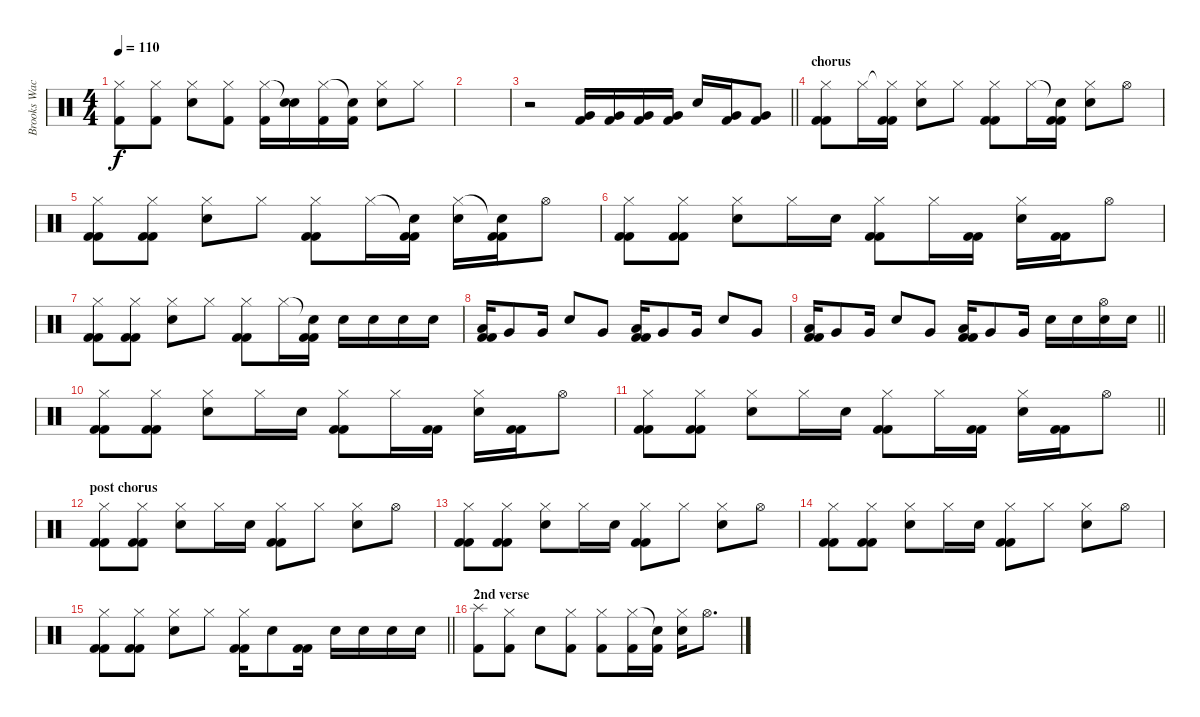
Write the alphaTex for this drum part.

\track ("Brooks Wackerman" "Brooks Wac") {instrument percussion}
\staff {score}
\articulation defaults
\ts (4 4)
\tempo 110
\clef neutral
\ks c
("Hi-Hat (closed)" "Kick (hit) 2").8{dy f} ("Hi-Hat (closed)" "Kick (hit) 2").8 ("Hi-Hat (closed)" "Snare (hit) 2").8 ("Hi-Hat (closed)" "Kick (hit) 2").8 ("Hi-Hat (closed)" "Kick (hit) 2").16 ("Snare (hit)"{t} "Snare (hit) 2").16 ("Hi-Hat (closed)" "Kick (hit) 2").16 ("Snare (hit)"{t} "Kick (hit) 2").16 ("Hi-Hat (closed)" "Snare (hit) 2").8 "Hi-Hat (closed)".8 |
|
\barLineRight lightlight
r.2 ("Very Low Tom (hit)" "Kick (hit) 2").16 ("Very Low Tom (hit)" "Kick (hit) 2").16 ("Very Low Tom (hit)" "Kick (hit) 2").16 ("Very Low Tom (hit)" "Kick (hit) 2").16 "Snare (hit) 2".16 ("Very Low Tom (hit)" "Kick (hit) 2").16 ("Very Low Tom (hit)" "Kick (hit) 2").8 |
\section ("" "chorus")
("Hi-Hat (closed)" "Kick (hit) 2" "Kick (hit) 2").8 "Hi-Hat (closed)".16 ("Hi-Hat (closed)"{t} "Kick (hit) 2" "Kick (hit) 2").16 ("Hi-Hat (closed)" "Snare (hit) 2").8 "Hi-Hat (closed)".8 ("Hi-Hat (closed)" "Kick (hit) 2" "Kick (hit) 2").8 "Hi-Hat (closed)".16 ("Snare (hit)"{t} "Kick (hit) 2" "Kick (hit) 2").16 ("Hi-Hat (closed)" "Snare (hit) 2").8 "Hi-Hat (open)".8 |
("Hi-Hat (closed)" "Kick (hit) 2" "Kick (hit) 2").8 ("Hi-Hat (closed)" "Kick (hit) 2" "Kick (hit) 2").8 ("Hi-Hat (closed)" "Snare (hit) 2").8 "Hi-Hat (closed)".8 ("Hi-Hat (closed)" "Kick (hit) 2" "Kick (hit) 2").8 "Hi-Hat (closed)".16 ("Snare (hit)"{t} "Kick (hit) 2" "Kick (hit) 2").16 ("Hi-Hat (closed)" "Snare (hit) 2").16 ("Snare (hit)"{t} "Kick (hit) 2" "Kick (hit) 2").16 "Hi-Hat (open)".8 |
("Hi-Hat (closed)" "Kick (hit) 2" "Kick (hit) 2").8 ("Hi-Hat (closed)" "Kick (hit) 2" "Kick (hit) 2").8 ("Hi-Hat (closed)" "Snare (hit) 2").8 "Hi-Hat (closed)".16 "Snare (hit) 2".16 ("Hi-Hat (closed)" "Kick (hit) 2" "Kick (hit) 2").8 "Hi-Hat (closed)".16 ("Kick (hit) 2" "Kick (hit) 2").16 ("Hi-Hat (closed)" "Snare (hit) 2").16 ("Kick (hit) 2" "Kick (hit) 2").16 "Hi-Hat (open)".8 |
("Hi-Hat (closed)" "Kick (hit) 2" "Kick (hit) 2").8 ("Hi-Hat (closed)" "Kick (hit) 2" "Kick (hit) 2").8 ("Hi-Hat (closed)" "Snare (hit) 2").8 "Hi-Hat (closed)".8 ("Hi-Hat (closed)" "Kick (hit) 2" "Kick (hit) 2").8 "Hi-Hat (closed)".16 ("Snare (hit)"{t} "Kick (hit) 2" "Kick (hit) 2").16 "Snare (hit) 2".16 "Snare (hit) 2".16 "Snare (hit) 2".16 "Snare (hit) 2".16 |
("Low Tom (hit)" "Kick (hit) 2" "Kick (hit) 2").16 "Very Low Tom (hit)".8 "Very Low Tom (hit)".16 "Snare (hit) 2".8 "Very Low Tom (hit)".8 ("Low Tom (hit)" "Kick (hit) 2" "Kick (hit) 2").16 "Very Low Tom (hit)".8 "Very Low Tom (hit)".16 "Snare (hit) 2".8 "Very Low Tom (hit)".8 |
\barLineRight lightlight
("Low Tom (hit)" "Kick (hit) 2" "Kick (hit) 2").16 "Very Low Tom (hit)".8 "Very Low Tom (hit)".16 "Snare (hit) 2".8 "Very Low Tom (hit)".8 ("Low Tom (hit)" "Kick (hit) 2" "Kick (hit) 2").16 "Very Low Tom (hit)".8 "Very Low Tom (hit)".16 "Snare (hit) 2".16 "Snare (hit) 2".16 ("Hi-Hat (open)" "Snare (hit) 2").16 "Snare (hit) 2".16 |
("Hi-Hat (closed)" "Kick (hit) 2" "Kick (hit) 2").8 ("Hi-Hat (closed)" "Kick (hit) 2" "Kick (hit) 2").8 ("Hi-Hat (closed)" "Snare (hit) 2").8 "Hi-Hat (closed)".16 "Snare (hit) 2".16 ("Hi-Hat (closed)" "Kick (hit) 2" "Kick (hit) 2").8 "Hi-Hat (closed)".16 ("Kick (hit) 2" "Kick (hit) 2").16 ("Hi-Hat (closed)" "Snare (hit) 2").16 ("Kick (hit) 2" "Kick (hit) 2").16 "Hi-Hat (open)".8 |
\barLineRight lightlight
("Hi-Hat (closed)" "Kick (hit) 2" "Kick (hit) 2").8 ("Hi-Hat (closed)" "Kick (hit) 2" "Kick (hit) 2").8 ("Hi-Hat (closed)" "Snare (hit) 2").8 "Hi-Hat (closed)".16 "Snare (hit) 2".16 ("Hi-Hat (closed)" "Kick (hit) 2" "Kick (hit) 2").8 "Hi-Hat (closed)".16 ("Kick (hit) 2" "Kick (hit) 2").16 ("Hi-Hat (closed)" "Snare (hit) 2").16 ("Kick (hit) 2" "Kick (hit) 2").16 "Hi-Hat (open)".8 |
\section ("" "post chorus")
("Hi-Hat (closed)" "Kick (hit) 2" "Kick (hit) 2").8 ("Hi-Hat (closed)" "Kick (hit) 2" "Kick (hit) 2").8 ("Hi-Hat (closed)" "Snare (hit) 2").8 "Hi-Hat (closed)".16 "Snare (hit) 2".16 ("Hi-Hat (closed)" "Kick (hit) 2" "Kick (hit) 2").8 "Hi-Hat (closed)".8 ("Hi-Hat (closed)" "Snare (hit) 2").8 "Hi-Hat (open)".8 |
("Hi-Hat (closed)" "Kick (hit) 2" "Kick (hit) 2").8 ("Hi-Hat (closed)" "Kick (hit) 2" "Kick (hit) 2").8 ("Hi-Hat (closed)" "Snare (hit) 2").8 "Hi-Hat (closed)".16 "Snare (hit) 2".16 ("Hi-Hat (closed)" "Kick (hit) 2" "Kick (hit) 2").8 "Hi-Hat (closed)".8 ("Hi-Hat (closed)" "Snare (hit) 2").8 "Hi-Hat (open)".8 |
("Hi-Hat (closed)" "Kick (hit) 2" "Kick (hit) 2").8 ("Hi-Hat (closed)" "Kick (hit) 2" "Kick (hit) 2").8 ("Hi-Hat (closed)" "Snare (hit) 2").8 "Hi-Hat (closed)".16 "Snare (hit) 2".16 ("Hi-Hat (closed)" "Kick (hit) 2" "Kick (hit) 2").8 "Hi-Hat (closed)".8 ("Hi-Hat (closed)" "Snare (hit) 2").8 "Hi-Hat (open)".8 |
\barLineRight lightlight
("Hi-Hat (closed)" "Kick (hit) 2" "Kick (hit) 2").8 ("Hi-Hat (closed)" "Kick (hit) 2" "Kick (hit) 2").8 ("Hi-Hat (closed)" "Snare (hit) 2").8 "Hi-Hat (closed)".8 ("Hi-Hat (closed)" "Kick (hit) 2" "Kick (hit) 2").16 "Snare (hit) 2".8 ("Kick (hit) 2" "Kick (hit) 2").16 "Snare (hit) 2".16 "Snare (hit) 2".16 "Snare (hit) 2".16 "Snare (hit) 2".16 |
\section ("" "2nd verse")
("Splash (hit)" "Kick (hit) 2").8 ("Hi-Hat (closed)" "Kick (hit) 2").8 "Snare (hit) 2".8 ("Hi-Hat (closed)" "Kick (hit) 2").8 ("Hi-Hat (closed)" "Kick (hit) 2").8 ("Hi-Hat (closed)" "Kick (hit) 2").16 ("Snare (hit)"{t} "Kick (hit) 2").16 ("Hi-Hat (closed)" "Snare (hit) 2").16 "Hi-Hat (open)".8{d}
